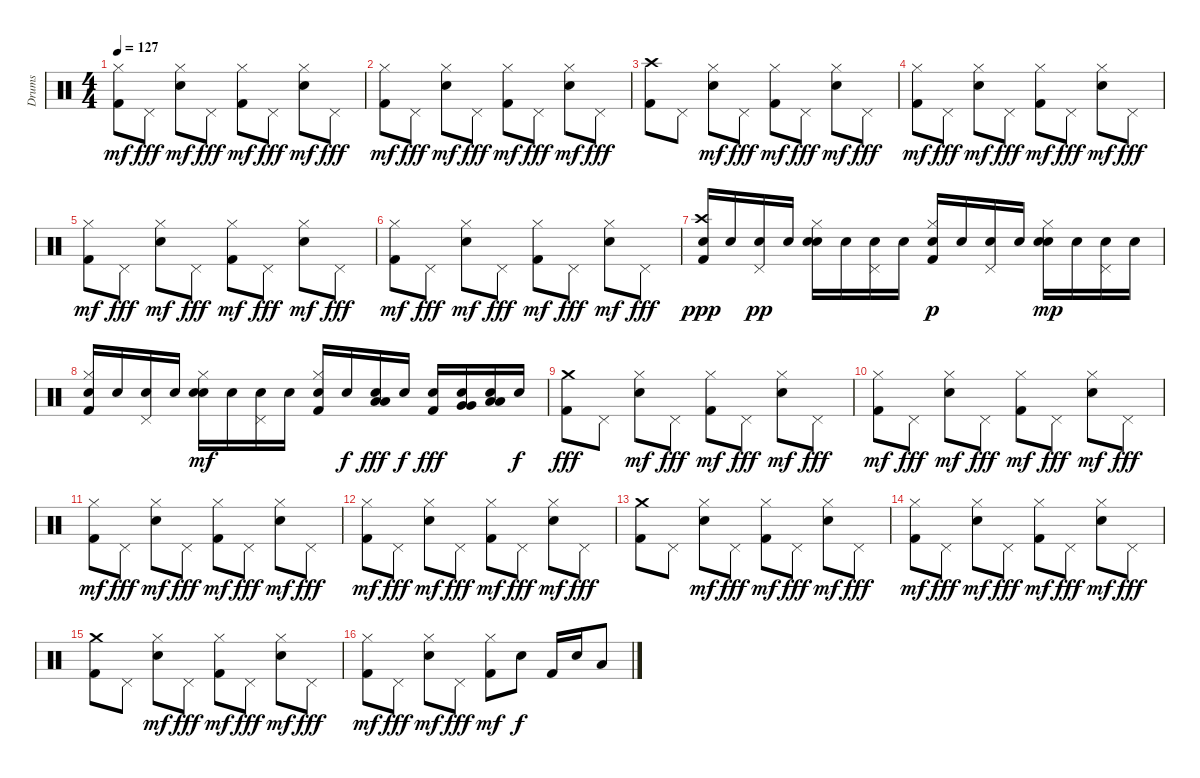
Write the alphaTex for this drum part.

\track ("Drums" "Drums") {instrument percussion}
\staff {score}
\articulation defaults
\ts (4 4)
\tempo 127
\clef neutral
\ks c
("Kick (hit) 2" "Hi-Hat (closed)").8{dy mf} "Pedal Hi-Hat (hit)".8{dy fff} ("Hi-Hat (closed)" "Electric Snare (hit)").8{dy mf} "Pedal Hi-Hat (hit)".8{dy fff} ("Kick (hit) 2" "Hi-Hat (closed)").8{dy mf} "Pedal Hi-Hat (hit)".8{dy fff} ("Hi-Hat (closed)" "Electric Snare (hit)").8{dy mf} "Pedal Hi-Hat (hit)".8{dy fff} |
("Kick (hit) 2" "Hi-Hat (closed)").8{dy mf} "Pedal Hi-Hat (hit)".8{dy fff} ("Hi-Hat (closed)" "Electric Snare (hit)").8{dy mf} "Pedal Hi-Hat (hit)".8{dy fff} ("Kick (hit) 2" "Hi-Hat (closed)").8{dy mf} "Pedal Hi-Hat (hit)".8{dy fff} ("Hi-Hat (closed)" "Electric Snare (hit)").8{dy mf} "Pedal Hi-Hat (hit)".8{dy fff} |
("Kick (hit) 2" "Crash high (hit)").8 "Pedal Hi-Hat (hit)".8 ("Hi-Hat (closed)" "Electric Snare (hit)").8{dy mf} "Pedal Hi-Hat (hit)".8{dy fff} ("Kick (hit) 2" "Hi-Hat (closed)").8{dy mf} "Pedal Hi-Hat (hit)".8{dy fff} ("Hi-Hat (closed)" "Electric Snare (hit)").8{dy mf} "Pedal Hi-Hat (hit)".8{dy fff} |
("Kick (hit) 2" "Hi-Hat (closed)").8{dy mf} "Pedal Hi-Hat (hit)".8{dy fff} ("Hi-Hat (closed)" "Electric Snare (hit)").8{dy mf} "Pedal Hi-Hat (hit)".8{dy fff} ("Kick (hit) 2" "Hi-Hat (closed)").8{dy mf} "Pedal Hi-Hat (hit)".8{dy fff} ("Hi-Hat (closed)" "Electric Snare (hit)").8{dy mf} "Pedal Hi-Hat (hit)".8{dy fff} |
("Kick (hit) 2" "Hi-Hat (closed)").8{dy mf} "Pedal Hi-Hat (hit)".8{dy fff} ("Hi-Hat (closed)" "Electric Snare (hit)").8{dy mf} "Pedal Hi-Hat (hit)".8{dy fff} ("Kick (hit) 2" "Hi-Hat (closed)").8{dy mf} "Pedal Hi-Hat (hit)".8{dy fff} ("Hi-Hat (closed)" "Electric Snare (hit)").8{dy mf} "Pedal Hi-Hat (hit)".8{dy fff} |
("Kick (hit) 2" "Hi-Hat (closed)").8{dy mf} "Pedal Hi-Hat (hit)".8{dy fff} ("Hi-Hat (closed)" "Electric Snare (hit)").8{dy mf} "Pedal Hi-Hat (hit)".8{dy fff} ("Kick (hit) 2" "Hi-Hat (closed)").8{dy mf} "Pedal Hi-Hat (hit)".8{dy fff} ("Hi-Hat (closed)" "Electric Snare (hit)").8{dy mf} "Pedal Hi-Hat (hit)".8{dy fff} |
("Kick (hit) 2" "Crash high (hit)" "Snare (hit) 2").16{dy ppp} "Snare (hit) 2".16 ("Pedal Hi-Hat (hit)" "Snare (hit) 2").16{dy pp} "Snare (hit) 2".16 ("Hi-Hat (closed)" "Electric Snare (hit)" "Snare (hit) 2").16 "Snare (hit) 2".16 ("Pedal Hi-Hat (hit)" "Snare (hit) 2").16 "Snare (hit) 2".16 ("Kick (hit) 2" "Hi-Hat (closed)" "Snare (hit) 2").16{dy p} "Snare (hit) 2".16 ("Pedal Hi-Hat (hit)" "Snare (hit) 2").16 "Snare (hit) 2".16 ("Hi-Hat (closed)" "Electric Snare (hit)" "Snare (hit) 2").16{dy mp} "Snare (hit) 2".16 ("Pedal Hi-Hat (hit)" "Snare (hit) 2").16 "Snare (hit) 2".16 |
("Kick (hit) 2" "Hi-Hat (closed)" "Snare (hit) 2").16 "Snare (hit) 2".16 ("Pedal Hi-Hat (hit)" "Snare (hit) 2").16 "Snare (hit) 2".16 ("Hi-Hat (closed)" "Electric Snare (hit)" "Snare (hit) 2").16{dy mf} "Snare (hit) 2".16 ("Pedal Hi-Hat (hit)" "Snare (hit) 2").16 "Snare (hit) 2".16 ("Kick (hit) 2" "Hi-Hat (closed)" "Snare (hit) 2").16 "Snare (hit) 2".16{dy f} ("Low Tom (hit)" "Low Tom (hit)" "Snare (hit) 2").16{dy fff} "Snare (hit) 2".16{dy f} ("Kick (hit) 2" "Snare (hit) 2").16{dy fff} ("Very Low Tom (hit)" "Very Low Tom (hit)" "Snare (hit) 2").16 ("Low Floor Tom (hit)" "Low Floor Tom (hit)" "Snare (hit) 2").16 "Snare (hit) 2".16{dy f} |
("Kick (hit) 2" "Crash medium (hit)").8{dy fff} "Pedal Hi-Hat (hit)".8 ("Hi-Hat (closed)" "Electric Snare (hit)").8{dy mf} "Pedal Hi-Hat (hit)".8{dy fff} ("Kick (hit) 2" "Hi-Hat (closed)").8{dy mf} "Pedal Hi-Hat (hit)".8{dy fff} ("Hi-Hat (closed)" "Electric Snare (hit)").8{dy mf} "Pedal Hi-Hat (hit)".8{dy fff} |
("Kick (hit) 2" "Hi-Hat (closed)").8{dy mf} "Pedal Hi-Hat (hit)".8{dy fff} ("Hi-Hat (closed)" "Electric Snare (hit)").8{dy mf} "Pedal Hi-Hat (hit)".8{dy fff} ("Kick (hit) 2" "Hi-Hat (closed)").8{dy mf} "Pedal Hi-Hat (hit)".8{dy fff} ("Hi-Hat (closed)" "Electric Snare (hit)").8{dy mf} "Pedal Hi-Hat (hit)".8{dy fff} |
("Kick (hit) 2" "Hi-Hat (closed)").8{dy mf} "Pedal Hi-Hat (hit)".8{dy fff} ("Hi-Hat (closed)" "Electric Snare (hit)").8{dy mf} "Pedal Hi-Hat (hit)".8{dy fff} ("Kick (hit) 2" "Hi-Hat (closed)").8{dy mf} "Pedal Hi-Hat (hit)".8{dy fff} ("Hi-Hat (closed)" "Electric Snare (hit)").8{dy mf} "Pedal Hi-Hat (hit)".8{dy fff} |
("Kick (hit) 2" "Hi-Hat (closed)").8{dy mf} "Pedal Hi-Hat (hit)".8{dy fff} ("Hi-Hat (closed)" "Electric Snare (hit)").8{dy mf} "Pedal Hi-Hat (hit)".8{dy fff} ("Kick (hit) 2" "Hi-Hat (closed)").8{dy mf} "Pedal Hi-Hat (hit)".8{dy fff} ("Hi-Hat (closed)" "Electric Snare (hit)").8{dy mf} "Pedal Hi-Hat (hit)".8{dy fff} |
("Kick (hit) 2" "Crash medium (hit)").8 "Pedal Hi-Hat (hit)".8 ("Hi-Hat (closed)" "Electric Snare (hit)").8{dy mf} "Pedal Hi-Hat (hit)".8{dy fff} ("Kick (hit) 2" "Hi-Hat (closed)").8{dy mf} "Pedal Hi-Hat (hit)".8{dy fff} ("Hi-Hat (closed)" "Electric Snare (hit)").8{dy mf} "Pedal Hi-Hat (hit)".8{dy fff} |
("Kick (hit) 2" "Hi-Hat (closed)").8{dy mf} "Pedal Hi-Hat (hit)".8{dy fff} ("Hi-Hat (closed)" "Electric Snare (hit)").8{dy mf} "Pedal Hi-Hat (hit)".8{dy fff} ("Kick (hit) 2" "Hi-Hat (closed)").8{dy mf} "Pedal Hi-Hat (hit)".8{dy fff} ("Hi-Hat (closed)" "Electric Snare (hit)").8{dy mf} "Pedal Hi-Hat (hit)".8{dy fff} |
("Kick (hit) 2" "Crash medium (hit)").8 "Pedal Hi-Hat (hit)".8 ("Hi-Hat (closed)" "Electric Snare (hit)").8{dy mf} "Pedal Hi-Hat (hit)".8{dy fff} ("Kick (hit) 2" "Hi-Hat (closed)").8{dy mf} "Pedal Hi-Hat (hit)".8{dy fff} ("Hi-Hat (closed)" "Electric Snare (hit)").8{dy mf} "Pedal Hi-Hat (hit)".8{dy fff} |
("Kick (hit) 2" "Hi-Hat (closed)").8{dy mf} "Pedal Hi-Hat (hit)".8{dy fff} ("Hi-Hat (closed)" "Electric Snare (hit)").8{dy mf} "Pedal Hi-Hat (hit)".8{dy fff} ("Kick (hit) 2" "Hi-Hat (closed)").8{dy mf} "Electric Snare (hit)".8{dy f} "Kick (hit) 2".16 "Electric Snare (hit)".16 "Low Floor Tom (hit)".8
